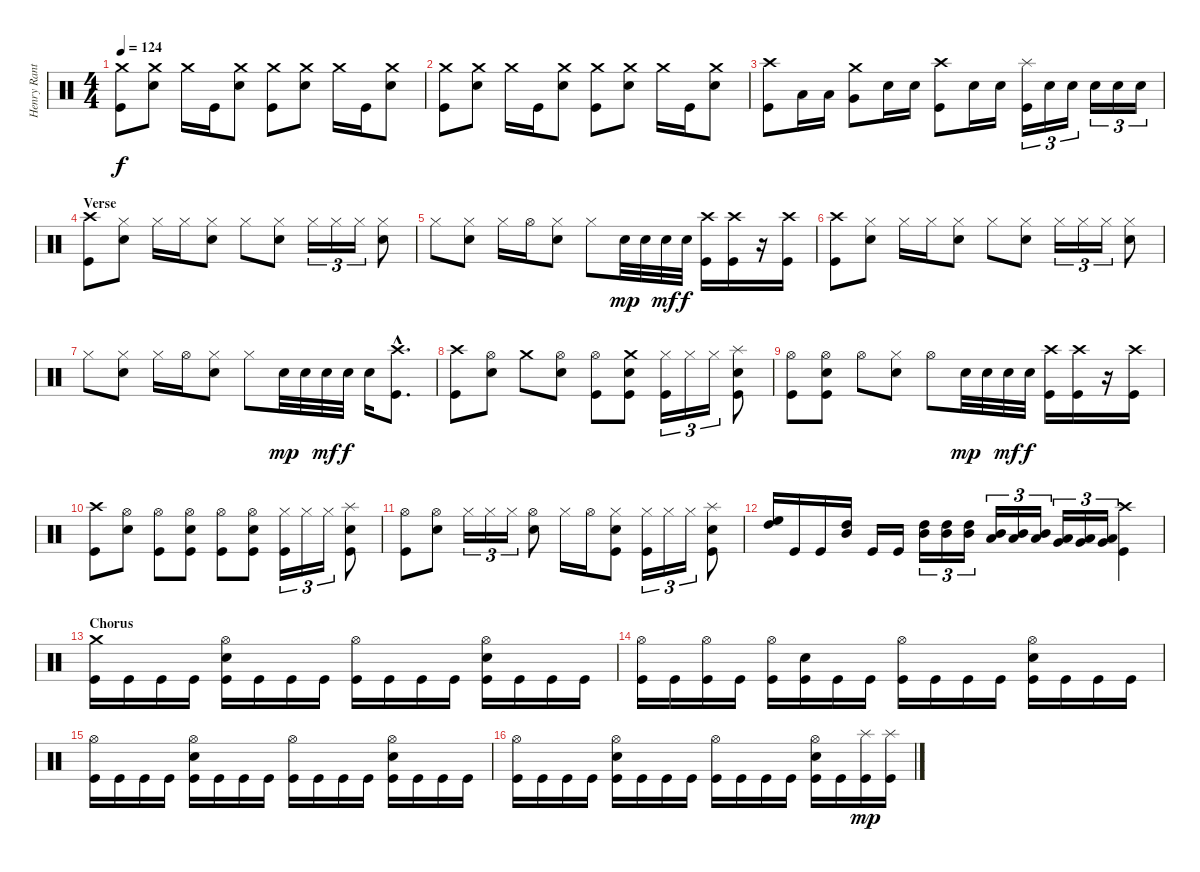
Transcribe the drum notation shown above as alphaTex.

\track ("Henry Ranta" "Henry Rant") {instrument percussion}
\staff {score}
\articulation defaults
\ts (4 4)
\tempo 124
\clef neutral
\ks c
("Crash medium (hit)" "Kick (hit)").8{dy f} ("Crash medium (hit)" "Electric Snare (hit)").8 "Crash medium (hit)".16 "Kick (hit)".16 ("Crash medium (hit)" "Electric Snare (hit)").8 ("Crash medium (hit)" "Kick (hit)").8 ("Crash medium (hit)" "Electric Snare (hit)").8 "Crash medium (hit)".16 "Kick (hit)".16 ("Crash medium (hit)" "Electric Snare (hit)").8 |
("Crash medium (hit)" "Kick (hit)").8 ("Crash medium (hit)" "Electric Snare (hit)").8 "Crash medium (hit)".16 "Kick (hit)".16 ("Crash medium (hit)" "Electric Snare (hit)").8 ("Crash medium (hit)" "Kick (hit)").8 ("Crash medium (hit)" "Electric Snare (hit)").8 "Crash medium (hit)".16 "Kick (hit)".16 ("Crash medium (hit)" "Electric Snare (hit)").8 |
("Crash high (hit)" "Kick (hit)").8 "Low Tom (hit)".16 "Low Tom (hit)".16 ("Crash medium (hit)" "Very Low Tom (hit)").8 "Electric Snare (hit)".16 "Electric Snare (hit)".16 ("Crash high (hit)" "Kick (hit)").8 "Electric Snare (hit)".16 "Electric Snare (hit)".16 ("Splash (hit)" "Kick (hit)").16{tu (3 2)} "Electric Snare (hit)".16{tu (3 2)} "Electric Snare (hit)".16{tu (3 2)} "Electric Snare (hit)".16{tu (3 2)} "Electric Snare (hit)".16{tu (3 2)} "Electric Snare (hit)".16{tu (3 2)} |
\section ("" "Verse")
("Crash high (hit)" "Kick (hit)").8 ("Hi-Hat (closed)" "Electric Snare (hit)").8 "Hi-Hat (closed)".16 "Hi-Hat (closed)".16 ("Hi-Hat (closed)" "Electric Snare (hit)").8 "Hi-Hat (closed)".8 ("Hi-Hat (closed)" "Electric Snare (hit)").8 "Hi-Hat (closed)".16{tu (3 2)} "Hi-Hat (closed)".16{tu (3 2)} "Hi-Hat (closed)".16{tu (3 2)} ("Hi-Hat (closed)" "Electric Snare (hit)").8 |
"Hi-Hat (closed)".8 ("Hi-Hat (closed)" "Electric Snare (hit)").8 "Hi-Hat (closed)".16 "Hi-Hat (open)".16 ("Hi-Hat (closed)" "Electric Snare (hit)").8 "Hi-Hat (closed)".8 "Electric Snare (hit)".32{dy mp} "Electric Snare (hit)".32 "Electric Snare (hit)".32{dy mf} "Electric Snare (hit)".32{dy f} ("Crash high (hit)" "Kick (hit)").16 ("Crash high (hit)" "Kick (hit)").16 r.16 ("Crash high (hit)" "Kick (hit)").16 |
("Crash high (hit)" "Kick (hit)").8 ("Hi-Hat (closed)" "Electric Snare (hit)").8 "Hi-Hat (closed)".16 "Hi-Hat (closed)".16 ("Hi-Hat (closed)" "Electric Snare (hit)").8 "Hi-Hat (closed)".8 ("Hi-Hat (closed)" "Electric Snare (hit)").8 "Hi-Hat (closed)".16{tu (3 2)} "Hi-Hat (closed)".16{tu (3 2)} "Hi-Hat (closed)".16{tu (3 2)} ("Hi-Hat (closed)" "Electric Snare (hit)").8 |
"Hi-Hat (closed)".8 ("Hi-Hat (closed)" "Electric Snare (hit)").8 "Hi-Hat (closed)".16 "Hi-Hat (open)".16 ("Hi-Hat (closed)" "Electric Snare (hit)").8 "Hi-Hat (closed)".8 "Electric Snare (hit)".32{dy mp} "Electric Snare (hit)".32 "Electric Snare (hit)".32{dy mf} "Electric Snare (hit)".32{dy f} "Electric Snare (hit)".16 ("Crash high (hit)"{hac} "Kick (hit)"{hac}).8{d} |
("Crash high (hit)" "Kick (hit)").8 ("Hi-Hat (open)" "Electric Snare (hit)").8 "Crash medium (hit)".8 ("Hi-Hat (open)" "Electric Snare (hit)").8 ("Hi-Hat (open)" "Kick (hit)").8 ("Crash medium (hit)" "Electric Snare (hit)" "Kick (hit)").8 ("Hi-Hat (closed)" "Kick (hit)").16{tu (3 2)} "Hi-Hat (closed)".16{tu (3 2)} "Hi-Hat (closed)".16{tu (3 2)} ("Splash (hit)" "Electric Snare (hit)" "Kick (hit)").8 |
("Hi-Hat (open)" "Kick (hit)").8 ("Hi-Hat (open)" "Electric Snare (hit)" "Kick (hit)").8 "Hi-Hat (open)".8 ("Hi-Hat (closed)" "Electric Snare (hit)").8 "Hi-Hat (open)".8 "Electric Snare (hit)".32{dy mp} "Electric Snare (hit)".32 "Electric Snare (hit)".32{dy mf} "Electric Snare (hit)".32{dy f} ("Crash high (hit)" "Kick (hit)").16 ("Crash high (hit)" "Kick (hit)").16 r.16 ("Crash high (hit)" "Kick (hit)").16 |
("Crash high (hit)" "Kick (hit)").8 ("Hi-Hat (open)" "Electric Snare (hit)").8 ("Hi-Hat (open)" "Kick (hit)").8 ("Hi-Hat (open)" "Electric Snare (hit)" "Kick (hit)").8 ("Hi-Hat (open)" "Kick (hit)").8 ("Hi-Hat (open)" "Electric Snare (hit)" "Kick (hit)").8 ("Hi-Hat (closed)" "Kick (hit)").16{tu (3 2)} "Hi-Hat (closed)".16{tu (3 2)} "Hi-Hat (closed)".16{tu (3 2)} ("Splash (hit)" "Electric Snare (hit)" "Kick (hit)").8 |
("Hi-Hat (open)" "Kick (hit)").8 ("Hi-Hat (open)" "Electric Snare (hit)").8 "Hi-Hat (closed)".16{tu (3 2)} "Hi-Hat (closed)".16{tu (3 2)} "Hi-Hat (closed)".16{tu (3 2)} ("Hi-Hat (open)" "Electric Snare (hit)").8 "Hi-Hat (closed)".16 "Hi-Hat (open)".16 ("Hi-Hat (closed)" "Electric Snare (hit)" "Kick (hit)").8 ("Hi-Hat (closed)" "Kick (hit)").16{tu (3 2)} "Hi-Hat (closed)".16{tu (3 2)} "Hi-Hat (closed)".16{tu (3 2)} ("Splash (hit)" "Electric Snare (hit)" "Kick (hit)").8 |
("High Floor Tom (hit)" "High Tom (hit)").16 "Kick (hit)".16 "Kick (hit)".16 ("High Tom (hit)" "Mid Tom (hit)").16 "Kick (hit)".16 "Kick (hit)".16 ("High Tom (hit)" "Mid Tom (hit)").16{tu (3 2)} ("High Tom (hit)" "Mid Tom (hit)").16{tu (3 2)} ("High Tom (hit)" "Mid Tom (hit)").16{tu (3 2)} ("Mid Tom (hit)" "Low Tom (hit)").16{tu (3 2)} ("Mid Tom (hit)" "Low Tom (hit)").16{tu (3 2)} ("Mid Tom (hit)" "Low Tom (hit)").16{tu (3 2)} ("Low Tom (hit)" "Very Low Tom (hit)").16{tu (3 2)} ("Low Tom (hit)" "Very Low Tom (hit)").16{tu (3 2)} ("Low Tom (hit)" "Very Low Tom (hit)").16{tu (3 2)} ("Crash high (hit)" "Kick (hit)").4 |
\section ("" "Chorus")
("Crash medium (hit)" "Kick (hit)").16 "Kick (hit)".16 "Kick (hit)".16 "Kick (hit)".16 ("Hi-Hat (open)" "Electric Snare (hit)" "Kick (hit)").16 "Kick (hit)".16 "Kick (hit)".16 "Kick (hit)".16 ("Hi-Hat (open)" "Kick (hit)").16 "Kick (hit)".16 "Kick (hit)".16 "Kick (hit)".16 ("Hi-Hat (open)" "Electric Snare (hit)" "Kick (hit)").16 "Kick (hit)".16 "Kick (hit)".16 "Kick (hit)".16 |
("Hi-Hat (open)" "Kick (hit)").16 "Kick (hit)".16 ("Hi-Hat (open)" "Kick (hit)").16 "Kick (hit)".16 ("Hi-Hat (open)" "Kick (hit)").16 ("Electric Snare (hit)" "Kick (hit)").16 "Kick (hit)".16 "Kick (hit)".16 ("Hi-Hat (open)" "Kick (hit)").16 "Kick (hit)".16 "Kick (hit)".16 "Kick (hit)".16 ("Hi-Hat (open)" "Electric Snare (hit)" "Kick (hit)").16 "Kick (hit)".16 "Kick (hit)".16 "Kick (hit)".16 |
("Hi-Hat (open)" "Kick (hit)").16 "Kick (hit)".16 "Kick (hit)".16 "Kick (hit)".16 ("Hi-Hat (open)" "Electric Snare (hit)" "Kick (hit)").16 "Kick (hit)".16 "Kick (hit)".16 "Kick (hit)".16 ("Hi-Hat (open)" "Kick (hit)").16 "Kick (hit)".16 "Kick (hit)".16 "Kick (hit)".16 ("Hi-Hat (open)" "Electric Snare (hit)" "Kick (hit)").16 "Kick (hit)".16 "Kick (hit)".16 "Kick (hit)".16 |
("Hi-Hat (open)" "Kick (hit)").16 "Kick (hit)".16 "Kick (hit)".16 "Kick (hit)".16 ("Hi-Hat (open)" "Electric Snare (hit)" "Kick (hit)").16 "Kick (hit)".16 "Kick (hit)".16 "Kick (hit)".16 ("Hi-Hat (open)" "Kick (hit)").16 "Kick (hit)".16 "Kick (hit)".16 "Kick (hit)".16 ("Hi-Hat (open)" "Electric Snare (hit)" "Kick (hit)").16 "Kick (hit)".16 ("Splash (hit)" "Kick (hit)").16{dy mp} ("Splash (hit)" "Kick (hit)").16
